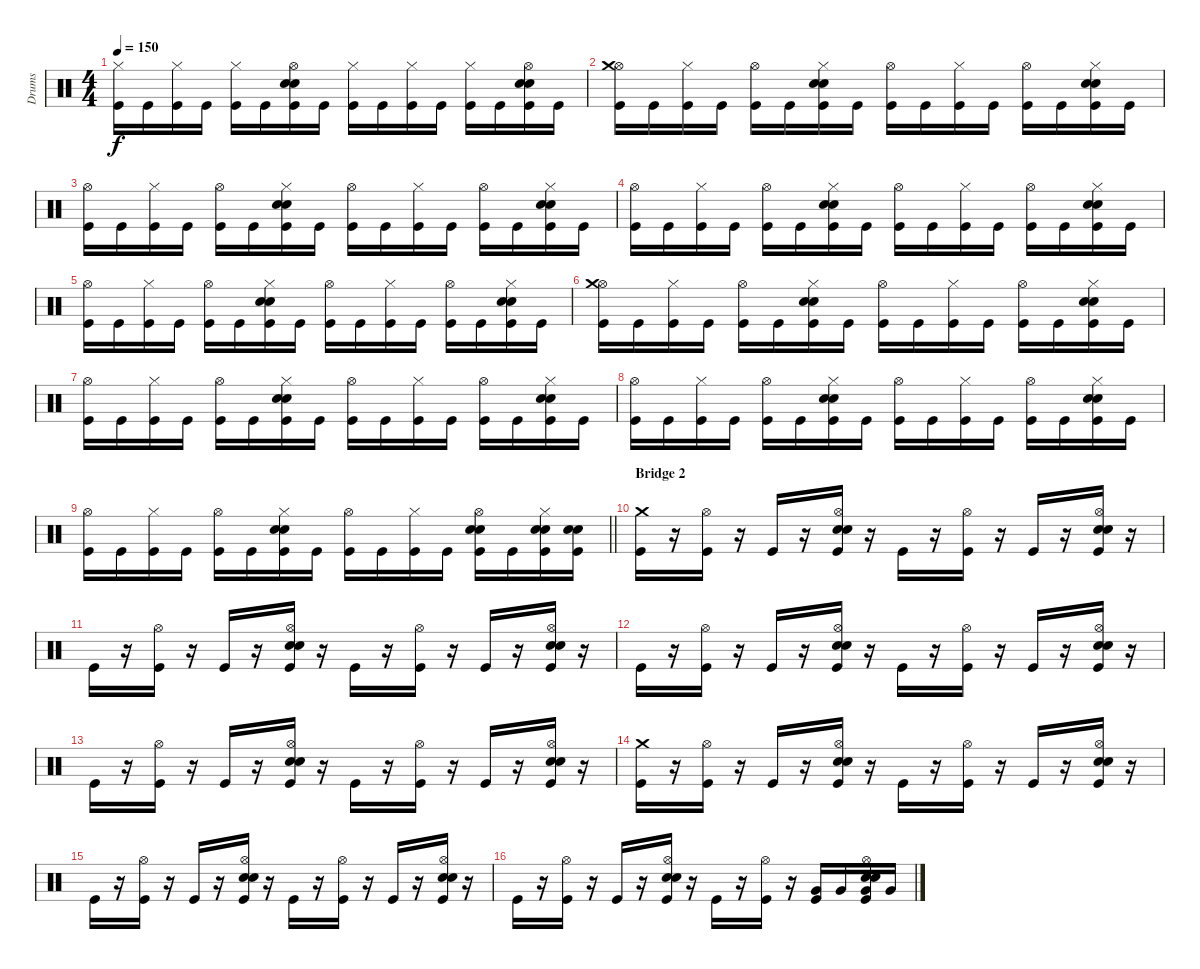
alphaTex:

\track ("Drums" "Drums") {instrument percussion}
\staff {score}
\articulation defaults
\ts (4 4)
\tempo 150
\clef neutral
\ks c
("Hi-Hat (closed)" "Kick (hit)").16{dy f} "Kick (hit)".16 ("Hi-Hat (closed)" "Kick (hit)").16 "Kick (hit)".16 ("Hi-Hat (closed)" "Kick (hit)").16 "Kick (hit)".16 ("Hi-Hat (open)" "Electric Snare (hit)" "Snare (hit) 2" "Kick (hit)").16 "Kick (hit)".16 ("Hi-Hat (closed)" "Kick (hit)").16 "Kick (hit)".16 ("Hi-Hat (closed)" "Kick (hit)").16 "Kick (hit)".16 ("Hi-Hat (closed)" "Kick (hit)").16 "Kick (hit)".16 ("Hi-Hat (open)" "Electric Snare (hit)" "Snare (hit) 2" "Kick (hit)").16 "Kick (hit)".16 |
("Hi-Hat (open)" "Kick (hit)" "Crash medium (hit)").16 "Kick (hit)".16 ("Hi-Hat (closed)" "Kick (hit)").16 "Kick (hit)".16 ("Hi-Hat (open)" "Kick (hit)").16 "Kick (hit)".16 ("Hi-Hat (closed)" "Electric Snare (hit)" "Snare (hit) 2" "Kick (hit)").16 "Kick (hit)".16 ("Hi-Hat (open)" "Kick (hit)").16 "Kick (hit)".16 ("Hi-Hat (closed)" "Kick (hit)").16 "Kick (hit)".16 ("Hi-Hat (open)" "Kick (hit)").16 "Kick (hit)".16 ("Hi-Hat (closed)" "Electric Snare (hit)" "Snare (hit) 2" "Kick (hit)").16 "Kick (hit)".16 |
("Hi-Hat (open)" "Kick (hit)").16 "Kick (hit)".16 ("Hi-Hat (closed)" "Kick (hit)").16 "Kick (hit)".16 ("Hi-Hat (open)" "Kick (hit)").16 "Kick (hit)".16 ("Hi-Hat (closed)" "Electric Snare (hit)" "Snare (hit) 2" "Kick (hit)").16 "Kick (hit)".16 ("Hi-Hat (open)" "Kick (hit)").16 "Kick (hit)".16 ("Hi-Hat (closed)" "Kick (hit)").16 "Kick (hit)".16 ("Hi-Hat (open)" "Kick (hit)").16 "Kick (hit)".16 ("Hi-Hat (closed)" "Electric Snare (hit)" "Snare (hit) 2" "Kick (hit)").16 "Kick (hit)".16 |
("Hi-Hat (open)" "Kick (hit)").16 "Kick (hit)".16 ("Hi-Hat (closed)" "Kick (hit)").16 "Kick (hit)".16 ("Hi-Hat (open)" "Kick (hit)").16 "Kick (hit)".16 ("Hi-Hat (closed)" "Electric Snare (hit)" "Snare (hit) 2" "Kick (hit)").16 "Kick (hit)".16 ("Hi-Hat (open)" "Kick (hit)").16 "Kick (hit)".16 ("Hi-Hat (closed)" "Kick (hit)").16 "Kick (hit)".16 ("Hi-Hat (open)" "Kick (hit)").16 "Kick (hit)".16 ("Hi-Hat (closed)" "Electric Snare (hit)" "Snare (hit) 2" "Kick (hit)").16 "Kick (hit)".16 |
("Hi-Hat (open)" "Kick (hit)").16 "Kick (hit)".16 ("Hi-Hat (closed)" "Kick (hit)").16 "Kick (hit)".16 ("Hi-Hat (open)" "Kick (hit)").16 "Kick (hit)".16 ("Hi-Hat (closed)" "Electric Snare (hit)" "Snare (hit) 2" "Kick (hit)").16 "Kick (hit)".16 ("Hi-Hat (open)" "Kick (hit)").16 "Kick (hit)".16 ("Hi-Hat (closed)" "Kick (hit)").16 "Kick (hit)".16 ("Hi-Hat (open)" "Kick (hit)").16 "Kick (hit)".16 ("Hi-Hat (closed)" "Electric Snare (hit)" "Snare (hit) 2" "Kick (hit)").16 "Kick (hit)".16 |
("Hi-Hat (open)" "Kick (hit)" "Crash medium (hit)").16 "Kick (hit)".16 ("Hi-Hat (closed)" "Kick (hit)").16 "Kick (hit)".16 ("Hi-Hat (open)" "Kick (hit)").16 "Kick (hit)".16 ("Hi-Hat (closed)" "Electric Snare (hit)" "Snare (hit) 2" "Kick (hit)").16 "Kick (hit)".16 ("Hi-Hat (open)" "Kick (hit)").16 "Kick (hit)".16 ("Hi-Hat (closed)" "Kick (hit)").16 "Kick (hit)".16 ("Hi-Hat (open)" "Kick (hit)").16 "Kick (hit)".16 ("Hi-Hat (closed)" "Electric Snare (hit)" "Snare (hit) 2" "Kick (hit)").16 "Kick (hit)".16 |
("Hi-Hat (open)" "Kick (hit)").16 "Kick (hit)".16 ("Hi-Hat (closed)" "Kick (hit)").16 "Kick (hit)".16 ("Hi-Hat (open)" "Kick (hit)").16 "Kick (hit)".16 ("Hi-Hat (closed)" "Electric Snare (hit)" "Snare (hit) 2" "Kick (hit)").16 "Kick (hit)".16 ("Hi-Hat (open)" "Kick (hit)").16 "Kick (hit)".16 ("Hi-Hat (closed)" "Kick (hit)").16 "Kick (hit)".16 ("Hi-Hat (open)" "Kick (hit)").16 "Kick (hit)".16 ("Hi-Hat (closed)" "Electric Snare (hit)" "Snare (hit) 2" "Kick (hit)").16 "Kick (hit)".16 |
("Hi-Hat (open)" "Kick (hit)").16 "Kick (hit)".16 ("Hi-Hat (closed)" "Kick (hit)").16 "Kick (hit)".16 ("Hi-Hat (open)" "Kick (hit)").16 "Kick (hit)".16 ("Hi-Hat (closed)" "Electric Snare (hit)" "Snare (hit) 2" "Kick (hit)").16 "Kick (hit)".16 ("Hi-Hat (open)" "Kick (hit)").16 "Kick (hit)".16 ("Hi-Hat (closed)" "Kick (hit)").16 "Kick (hit)".16 ("Hi-Hat (open)" "Kick (hit)").16 "Kick (hit)".16 ("Hi-Hat (closed)" "Electric Snare (hit)" "Snare (hit) 2" "Kick (hit)").16 "Kick (hit)".16 |
\barLineRight lightlight
("Hi-Hat (open)" "Kick (hit)").16 "Kick (hit)".16 ("Hi-Hat (closed)" "Kick (hit)").16 "Kick (hit)".16 ("Hi-Hat (open)" "Kick (hit)").16 "Kick (hit)".16 ("Hi-Hat (closed)" "Electric Snare (hit)" "Snare (hit) 2" "Kick (hit)").16 "Kick (hit)".16 ("Hi-Hat (open)" "Kick (hit)").16 "Kick (hit)".16 ("Hi-Hat (closed)" "Kick (hit)").16 "Kick (hit)".16 ("Hi-Hat (open)" "Electric Snare (hit)" "Snare (hit) 2" "Kick (hit)").16 "Kick (hit)".16 ("Hi-Hat (closed)" "Electric Snare (hit)" "Snare (hit) 2" "Kick (hit)").16 ("Electric Snare (hit)" "Snare (hit) 2" "Kick (hit)").16 |
\section ("" "Bridge 2")
("Kick (hit)" "Crash medium (hit)").16 r.16 ("Kick (hit)" "Hi-Hat (open)").16 r.16 "Kick (hit)".16 r.16 ("Snare (hit) 2" "Electric Snare (hit)" "Kick (hit)" "Hi-Hat (open)").16 r.16 "Kick (hit)".16 r.16 ("Kick (hit)" "Hi-Hat (open)").16 r.16 "Kick (hit)".16 r.16 ("Snare (hit) 2" "Electric Snare (hit)" "Kick (hit)" "Hi-Hat (open)").16 r.16 |
"Kick (hit)".16 r.16 ("Kick (hit)" "Hi-Hat (open)").16 r.16 "Kick (hit)".16 r.16 ("Snare (hit) 2" "Electric Snare (hit)" "Kick (hit)" "Hi-Hat (open)").16 r.16 "Kick (hit)".16 r.16 ("Kick (hit)" "Hi-Hat (open)").16 r.16 "Kick (hit)".16 r.16 ("Snare (hit) 2" "Electric Snare (hit)" "Kick (hit)" "Hi-Hat (open)").16 r.16 |
"Kick (hit)".16 r.16 ("Kick (hit)" "Hi-Hat (open)").16 r.16 "Kick (hit)".16 r.16 ("Snare (hit) 2" "Electric Snare (hit)" "Kick (hit)" "Hi-Hat (open)").16 r.16 "Kick (hit)".16 r.16 ("Kick (hit)" "Hi-Hat (open)").16 r.16 "Kick (hit)".16 r.16 ("Snare (hit) 2" "Electric Snare (hit)" "Kick (hit)" "Hi-Hat (open)").16 r.16 |
"Kick (hit)".16 r.16 ("Kick (hit)" "Hi-Hat (open)").16 r.16 "Kick (hit)".16 r.16 ("Snare (hit) 2" "Electric Snare (hit)" "Kick (hit)" "Hi-Hat (open)").16 r.16 "Kick (hit)".16 r.16 ("Kick (hit)" "Hi-Hat (open)").16 r.16 "Kick (hit)".16 r.16 ("Snare (hit) 2" "Electric Snare (hit)" "Kick (hit)" "Hi-Hat (open)").16 r.16 |
("Kick (hit)" "Crash medium (hit)").16 r.16 ("Kick (hit)" "Hi-Hat (open)").16 r.16 "Kick (hit)".16 r.16 ("Snare (hit) 2" "Electric Snare (hit)" "Kick (hit)" "Hi-Hat (open)").16 r.16 "Kick (hit)".16 r.16 ("Kick (hit)" "Hi-Hat (open)").16 r.16 "Kick (hit)".16 r.16 ("Snare (hit) 2" "Electric Snare (hit)" "Kick (hit)" "Hi-Hat (open)").16 r.16 |
"Kick (hit)".16 r.16 ("Kick (hit)" "Hi-Hat (open)").16 r.16 "Kick (hit)".16 r.16 ("Snare (hit) 2" "Electric Snare (hit)" "Kick (hit)" "Hi-Hat (open)").16 r.16 "Kick (hit)".16 r.16 ("Kick (hit)" "Hi-Hat (open)").16 r.16 "Kick (hit)".16 r.16 ("Snare (hit) 2" "Electric Snare (hit)" "Kick (hit)" "Hi-Hat (open)").16 r.16 |
"Kick (hit)".16 r.16 ("Kick (hit)" "Hi-Hat (open)").16 r.16 "Kick (hit)".16 r.16 ("Snare (hit) 2" "Electric Snare (hit)" "Kick (hit)" "Hi-Hat (open)").16 r.16 "Kick (hit)".16 r.16 ("Kick (hit)" "Hi-Hat (open)").16 r.16 ("Very Low Tom (hit)" "Kick (hit)").16 "Very Low Tom (hit)".16 ("Very Low Tom (hit)" "Snare (hit) 2" "Electric Snare (hit)" "Kick (hit)" "Hi-Hat (open)").16 "Very Low Tom (hit)".16
